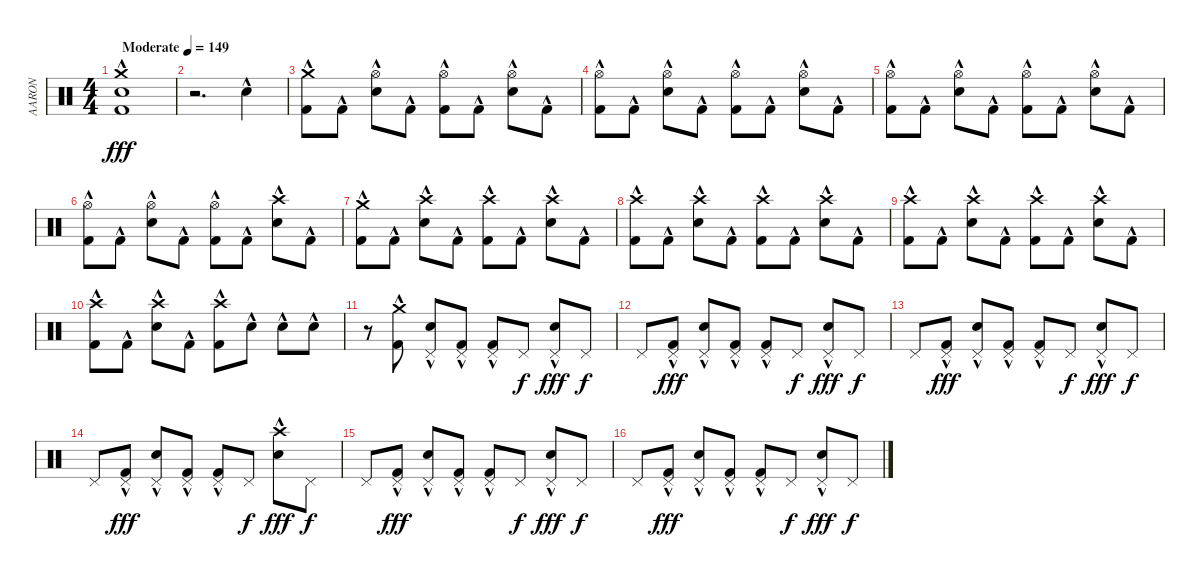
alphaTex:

\track ("AARON" "AARON") {instrument percussion}
\staff {score}
\articulation defaults
\ts (4 4)
\tempo (149 "Moderate")
\clef neutral
\ks c
("Crash medium (hit)" "Snare (hit) 2"{hac} "Kick (hit) 2"{hac}).1{dy fff} |
r.2{d} "Snare (hit) 2"{hac}.4 |
("Crash medium (hit)" "Kick (hit) 2"{hac}).8 "Kick (hit) 2"{hac}.8 ("Hi-Hat (open)" "Snare (hit) 2"{hac}).8 "Kick (hit) 2"{hac}.8 ("Hi-Hat (open)" "Kick (hit) 2"{hac}).8 "Kick (hit) 2"{hac}.8 ("Hi-Hat (open)" "Snare (hit) 2"{hac}).8 "Kick (hit) 2"{hac}.8 |
("Hi-Hat (open)" "Kick (hit) 2"{hac}).8 "Kick (hit) 2"{hac}.8 ("Hi-Hat (open)" "Snare (hit) 2"{hac}).8 "Kick (hit) 2"{hac}.8 ("Hi-Hat (open)" "Kick (hit) 2"{hac}).8 "Kick (hit) 2"{hac}.8 ("Hi-Hat (open)" "Snare (hit) 2"{hac}).8 "Kick (hit) 2"{hac}.8 |
("Hi-Hat (open)" "Kick (hit) 2"{hac}).8 "Kick (hit) 2"{hac}.8 ("Hi-Hat (open)" "Snare (hit) 2"{hac}).8 "Kick (hit) 2"{hac}.8 ("Hi-Hat (open)" "Kick (hit) 2"{hac}).8 "Kick (hit) 2"{hac}.8 ("Hi-Hat (open)" "Snare (hit) 2"{hac}).8 "Kick (hit) 2"{hac}.8 |
("Hi-Hat (open)" "Kick (hit) 2"{hac}).8 "Kick (hit) 2"{hac}.8 ("Hi-Hat (open)" "Snare (hit) 2"{hac}).8 "Kick (hit) 2"{hac}.8 ("Hi-Hat (open)" "Kick (hit) 2"{hac}).8 "Kick (hit) 2"{hac}.8 ("Crash high (hit)" "Snare (hit) 2"{hac}).8 "Kick (hit) 2"{hac}.8 |
("Crash medium (hit)" "Kick (hit) 2"{hac}).8 "Kick (hit) 2"{hac}.8 ("Crash high (hit)" "Snare (hit) 2"{hac}).8 "Kick (hit) 2"{hac}.8 ("Crash high (hit)" "Kick (hit) 2"{hac}).8 "Kick (hit) 2"{hac}.8 ("Crash high (hit)" "Snare (hit) 2"{hac}).8 "Kick (hit) 2"{hac}.8 |
("Crash high (hit)" "Kick (hit) 2"{hac}).8 "Kick (hit) 2"{hac}.8 ("Crash high (hit)" "Snare (hit) 2"{hac}).8 "Kick (hit) 2"{hac}.8 ("Crash high (hit)" "Kick (hit) 2"{hac}).8 "Kick (hit) 2"{hac}.8 ("Crash high (hit)" "Snare (hit) 2"{hac}).8 "Kick (hit) 2"{hac}.8 |
("Crash high (hit)" "Kick (hit) 2"{hac}).8 "Kick (hit) 2"{hac}.8 ("Crash high (hit)" "Snare (hit) 2"{hac}).8 "Kick (hit) 2"{hac}.8 ("Crash high (hit)" "Kick (hit) 2"{hac}).8 "Kick (hit) 2"{hac}.8 ("Crash high (hit)" "Snare (hit) 2"{hac}).8 "Kick (hit) 2"{hac}.8 |
("Crash high (hit)" "Kick (hit) 2"{hac}).8 "Kick (hit) 2"{hac}.8 ("Crash high (hit)" "Snare (hit) 2"{hac}).8 "Kick (hit) 2"{hac}.8 ("Crash high (hit)" "Kick (hit) 2"{hac}).8 "Snare (hit) 2"{hac}.8 "Snare (hit) 2"{hac}.8 "Snare (hit) 2"{hac}.8 |
r.8 ("Crash medium (hit)" "Kick (hit) 2"{hac}).8 ("Pedal Hi-Hat (hit)" "Snare (hit) 2"{hac}).8 ("Pedal Hi-Hat (hit)" "Kick (hit) 2"{hac}).8 ("Pedal Hi-Hat (hit)" "Kick (hit) 2"{hac}).8 "Pedal Hi-Hat (hit)".8{dy f} ("Pedal Hi-Hat (hit)" "Snare (hit) 2"{hac}).8{dy fff} "Pedal Hi-Hat (hit)".8{dy f} |
"Pedal Hi-Hat (hit)".8 ("Pedal Hi-Hat (hit)" "Kick (hit) 2"{hac}).8{dy fff} ("Pedal Hi-Hat (hit)" "Snare (hit) 2"{hac}).8 ("Pedal Hi-Hat (hit)" "Kick (hit) 2"{hac}).8 ("Pedal Hi-Hat (hit)" "Kick (hit) 2"{hac}).8 "Pedal Hi-Hat (hit)".8{dy f} ("Pedal Hi-Hat (hit)" "Snare (hit) 2"{hac}).8{dy fff} "Pedal Hi-Hat (hit)".8{dy f} |
"Pedal Hi-Hat (hit)".8 ("Pedal Hi-Hat (hit)" "Kick (hit) 2"{hac}).8{dy fff} ("Pedal Hi-Hat (hit)" "Snare (hit) 2"{hac}).8 ("Pedal Hi-Hat (hit)" "Kick (hit) 2"{hac}).8 ("Pedal Hi-Hat (hit)" "Kick (hit) 2"{hac}).8 "Pedal Hi-Hat (hit)".8{dy f} ("Pedal Hi-Hat (hit)" "Snare (hit) 2"{hac}).8{dy fff} "Pedal Hi-Hat (hit)".8{dy f} |
"Pedal Hi-Hat (hit)".8 ("Pedal Hi-Hat (hit)" "Kick (hit) 2"{hac}).8{dy fff} ("Pedal Hi-Hat (hit)" "Snare (hit) 2"{hac}).8 ("Pedal Hi-Hat (hit)" "Kick (hit) 2"{hac}).8 ("Pedal Hi-Hat (hit)" "Kick (hit) 2"{hac}).8 "Pedal Hi-Hat (hit)".8{dy f} ("Crash high (hit)" "Snare (hit) 2"{hac}).8{dy fff} "Pedal Hi-Hat (hit)".8{dy f} |
"Pedal Hi-Hat (hit)".8 ("Pedal Hi-Hat (hit)" "Kick (hit) 2"{hac}).8{dy fff} ("Pedal Hi-Hat (hit)" "Snare (hit) 2"{hac}).8 ("Pedal Hi-Hat (hit)" "Kick (hit) 2"{hac}).8 ("Pedal Hi-Hat (hit)" "Kick (hit) 2"{hac}).8 "Pedal Hi-Hat (hit)".8{dy f} ("Pedal Hi-Hat (hit)" "Snare (hit) 2"{hac}).8{dy fff} "Pedal Hi-Hat (hit)".8{dy f} |
"Pedal Hi-Hat (hit)".8 ("Pedal Hi-Hat (hit)" "Kick (hit) 2"{hac}).8{dy fff} ("Pedal Hi-Hat (hit)" "Snare (hit) 2"{hac}).8 ("Pedal Hi-Hat (hit)" "Kick (hit) 2"{hac}).8 ("Pedal Hi-Hat (hit)" "Kick (hit) 2"{hac}).8 "Pedal Hi-Hat (hit)".8{dy f} ("Pedal Hi-Hat (hit)" "Snare (hit) 2"{hac}).8{dy fff} "Pedal Hi-Hat (hit)".8{dy f}
